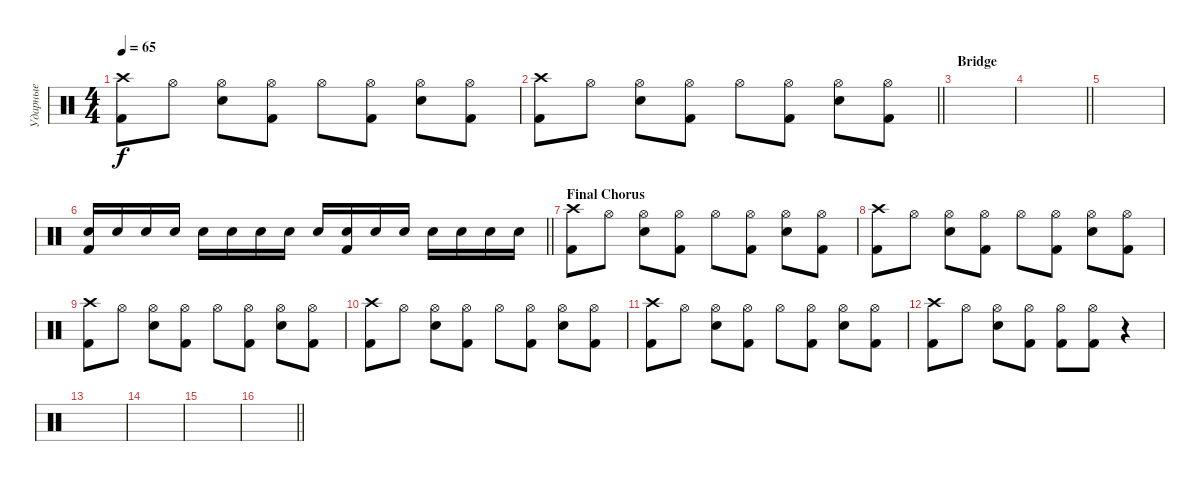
\track ("Ударные" "Ударные") {instrument percussion}
\staff {score}
\articulation defaults
\ts (4 4)
\tempo 65
\clef neutral
\ks c
("Kick (hit) 2" "Crash high (hit)").8{dy f} "Hi-Hat (open)".8 ("Hi-Hat (open)" "Electric Snare (hit)").8 ("Hi-Hat (open)" "Kick (hit) 2").8 "Hi-Hat (open)".8 ("Kick (hit) 2" "Hi-Hat (open)").8 ("Hi-Hat (open)" "Electric Snare (hit)").8 ("Kick (hit) 2" "Hi-Hat (open)").8 |
\barLineRight lightlight
("Kick (hit) 2" "Crash high (hit)").8 "Hi-Hat (open)".8 ("Hi-Hat (open)" "Electric Snare (hit)").8 ("Hi-Hat (open)" "Kick (hit) 2").8 "Hi-Hat (open)".8 ("Kick (hit) 2" "Hi-Hat (open)").8 ("Hi-Hat (open)" "Electric Snare (hit)").8 ("Kick (hit) 2" "Hi-Hat (open)").8 |
\section ("" "Bridge")
|
\barLineRight lightlight
|
|
\barLineRight lightlight
("Electric Snare (hit)" "Kick (hit) 2").16 "Electric Snare (hit)".16 "Electric Snare (hit)".16 "Electric Snare (hit)".16 "Electric Snare (hit)".16 "Electric Snare (hit)".16 "Electric Snare (hit)".16 "Electric Snare (hit)".16 "Electric Snare (hit)".16 ("Electric Snare (hit)" "Kick (hit) 2").16 "Electric Snare (hit)".16 "Electric Snare (hit)".16 "Electric Snare (hit)".16 "Electric Snare (hit)".16 "Electric Snare (hit)".16 "Electric Snare (hit)".16 |
\section ("" "Final Chorus")
("Kick (hit) 2" "Crash high (hit)").8 "Hi-Hat (open)".8 ("Hi-Hat (open)" "Electric Snare (hit)").8 ("Hi-Hat (open)" "Kick (hit) 2").8 "Hi-Hat (open)".8 ("Kick (hit) 2" "Hi-Hat (open)").8 ("Hi-Hat (open)" "Electric Snare (hit)").8 ("Kick (hit) 2" "Hi-Hat (open)").8 |
("Kick (hit) 2" "Crash high (hit)").8 "Hi-Hat (open)".8 ("Hi-Hat (open)" "Electric Snare (hit)").8 ("Hi-Hat (open)" "Kick (hit) 2").8 "Hi-Hat (open)".8 ("Kick (hit) 2" "Hi-Hat (open)").8 ("Hi-Hat (open)" "Electric Snare (hit)").8 ("Kick (hit) 2" "Hi-Hat (open)").8 |
("Kick (hit) 2" "Crash high (hit)").8 "Hi-Hat (open)".8 ("Hi-Hat (open)" "Electric Snare (hit)").8 ("Hi-Hat (open)" "Kick (hit) 2").8 "Hi-Hat (open)".8 ("Kick (hit) 2" "Hi-Hat (open)").8 ("Hi-Hat (open)" "Electric Snare (hit)").8 ("Kick (hit) 2" "Hi-Hat (open)").8 |
("Kick (hit) 2" "Crash high (hit)").8 "Hi-Hat (open)".8 ("Hi-Hat (open)" "Electric Snare (hit)").8 ("Hi-Hat (open)" "Kick (hit) 2").8 "Hi-Hat (open)".8 ("Kick (hit) 2" "Hi-Hat (open)").8 ("Hi-Hat (open)" "Electric Snare (hit)").8 ("Kick (hit) 2" "Hi-Hat (open)").8 |
("Kick (hit) 2" "Crash high (hit)").8 "Hi-Hat (open)".8 ("Hi-Hat (open)" "Electric Snare (hit)").8 ("Hi-Hat (open)" "Kick (hit) 2").8 "Hi-Hat (open)".8 ("Kick (hit) 2" "Hi-Hat (open)").8 ("Hi-Hat (open)" "Electric Snare (hit)").8 ("Kick (hit) 2" "Hi-Hat (open)").8 |
("Kick (hit) 2" "Crash high (hit)").8 "Hi-Hat (open)".8 ("Hi-Hat (open)" "Electric Snare (hit)").8 ("Hi-Hat (open)" "Kick (hit) 2").8 ("Kick (hit) 2" "Hi-Hat (open)").8 ("Kick (hit) 2" "Hi-Hat (open)").8 r.4 |
|
|
|
\barLineRight lightlight
